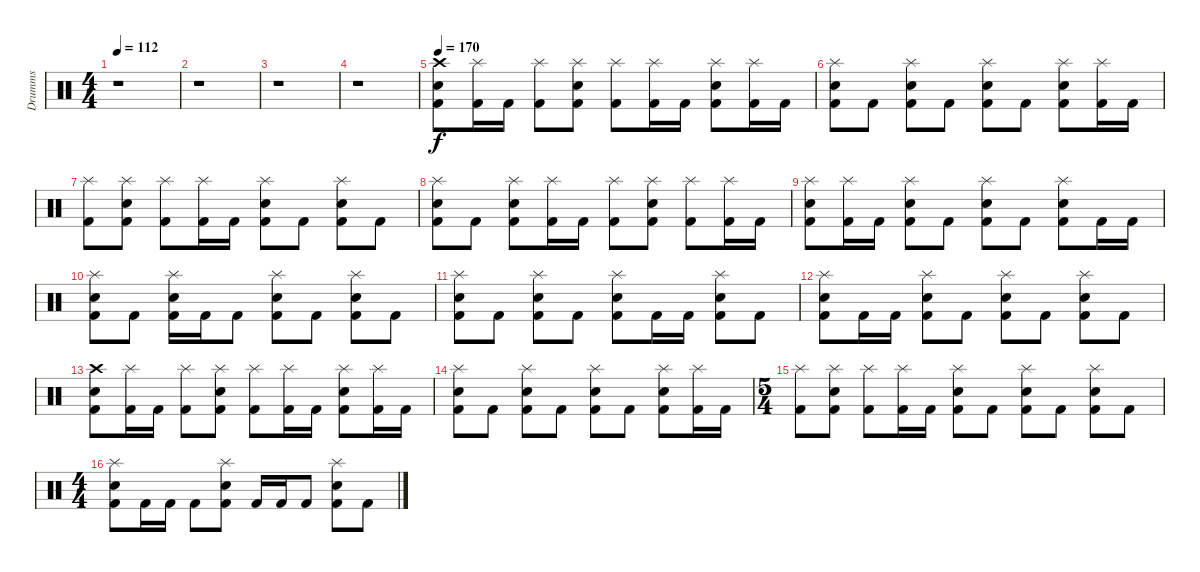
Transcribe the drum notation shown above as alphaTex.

\track ("Drumms" "Drumms") {instrument percussion}
\staff {score}
\articulation defaults
\ts (4 4)
\tempo 112
\clef neutral
\ks c
r.1{dy f} |
r.1 |
r.1 |
r.1 |
\tempo 170
("Kick (hit) 2" "Snare (hit) 2" "Crash high (hit)").8 ("Kick (hit) 2" "Splash (hit)").16 "Kick (hit) 2".16 ("Kick (hit) 2" "Splash (hit)").8 ("Kick (hit) 2" "Snare (hit) 2" "Splash (hit)").8 ("Kick (hit) 2" "Splash (hit)").8 ("Kick (hit) 2" "Splash (hit)").16 "Kick (hit) 2".16 ("Kick (hit) 2" "Snare (hit) 2" "Splash (hit)").8 ("Kick (hit) 2" "Splash (hit)").16 "Kick (hit) 2".16 |
("Kick (hit) 2" "Snare (hit) 2" "Splash (hit)").8 "Kick (hit) 2".8 ("Kick (hit) 2" "Snare (hit) 2" "Splash (hit)").8 "Kick (hit) 2".8 ("Kick (hit) 2" "Snare (hit) 2" "Splash (hit)").8 "Kick (hit) 2".8 ("Kick (hit) 2" "Snare (hit) 2" "Splash (hit)").8 ("Kick (hit) 2" "Splash (hit)").16 "Kick (hit) 2".16 |
("Kick (hit) 2" "Splash (hit)").8 ("Kick (hit) 2" "Snare (hit) 2" "Splash (hit)").8 ("Kick (hit) 2" "Splash (hit)").8 ("Kick (hit) 2" "Splash (hit)").16 "Kick (hit) 2".16 ("Kick (hit) 2" "Snare (hit) 2" "Splash (hit)").8 "Kick (hit) 2".8 ("Kick (hit) 2" "Snare (hit) 2" "Splash (hit)").8 "Kick (hit) 2".8 |
("Kick (hit) 2" "Snare (hit) 2" "Splash (hit)").8 "Kick (hit) 2".8 ("Kick (hit) 2" "Snare (hit) 2" "Splash (hit)").8 ("Kick (hit) 2" "Splash (hit)").16 "Kick (hit) 2".16 ("Kick (hit) 2" "Splash (hit)").8 ("Kick (hit) 2" "Snare (hit) 2" "Splash (hit)").8 ("Kick (hit) 2" "Splash (hit)").8 ("Kick (hit) 2" "Splash (hit)").16 "Kick (hit) 2".16 |
("Kick (hit) 2" "Snare (hit) 2" "Splash (hit)").8 ("Kick (hit) 2" "Splash (hit)").16 "Kick (hit) 2".16 ("Kick (hit) 2" "Snare (hit) 2" "Splash (hit)").8 "Kick (hit) 2".8 ("Kick (hit) 2" "Snare (hit) 2" "Splash (hit)").8 "Kick (hit) 2".8 ("Kick (hit) 2" "Snare (hit) 2" "Splash (hit)").8 "Kick (hit) 2".16 "Kick (hit) 2".16 |
("Kick (hit) 2" "Snare (hit) 2" "Splash (hit)").8 "Kick (hit) 2".8 ("Kick (hit) 2" "Snare (hit) 2" "Splash (hit)").16 "Kick (hit) 2".16 "Kick (hit) 2".8 ("Kick (hit) 2" "Snare (hit) 2" "Splash (hit)").8 "Kick (hit) 2".8 ("Kick (hit) 2" "Snare (hit) 2" "Splash (hit)").8 "Kick (hit) 2".8 |
("Kick (hit) 2" "Snare (hit) 2" "Splash (hit)").8 "Kick (hit) 2".8 ("Kick (hit) 2" "Snare (hit) 2" "Splash (hit)").8 "Kick (hit) 2".8 ("Kick (hit) 2" "Snare (hit) 2" "Splash (hit)").8 "Kick (hit) 2".16 "Kick (hit) 2".16 ("Kick (hit) 2" "Snare (hit) 2" "Splash (hit)").8 "Kick (hit) 2".8 |
("Kick (hit) 2" "Snare (hit) 2" "Splash (hit)").8 "Kick (hit) 2".16 "Kick (hit) 2".16 ("Kick (hit) 2" "Snare (hit) 2" "Splash (hit)").8 "Kick (hit) 2".8 ("Kick (hit) 2" "Snare (hit) 2" "Splash (hit)").8 "Kick (hit) 2".8 ("Kick (hit) 2" "Snare (hit) 2" "Splash (hit)").8 "Kick (hit) 2".8 |
("Kick (hit) 2" "Snare (hit) 2" "Crash high (hit)").8 ("Kick (hit) 2" "Splash (hit)").16 "Kick (hit) 2".16 ("Kick (hit) 2" "Splash (hit)").8 ("Kick (hit) 2" "Snare (hit) 2" "Splash (hit)").8 ("Kick (hit) 2" "Splash (hit)").8 ("Kick (hit) 2" "Splash (hit)").16 "Kick (hit) 2".16 ("Kick (hit) 2" "Snare (hit) 2" "Splash (hit)").8 ("Kick (hit) 2" "Splash (hit)").16 "Kick (hit) 2".16 |
("Kick (hit) 2" "Snare (hit) 2" "Splash (hit)").8 "Kick (hit) 2".8 ("Kick (hit) 2" "Snare (hit) 2" "Splash (hit)").8 "Kick (hit) 2".8 ("Kick (hit) 2" "Snare (hit) 2" "Splash (hit)").8 "Kick (hit) 2".8 ("Kick (hit) 2" "Snare (hit) 2" "Splash (hit)").8 ("Kick (hit) 2" "Splash (hit)").16 "Kick (hit) 2".16 |
\ts (5 4)
("Kick (hit) 2" "Splash (hit)").8 ("Kick (hit) 2" "Snare (hit) 2" "Splash (hit)").8 ("Kick (hit) 2" "Splash (hit)").8 ("Kick (hit) 2" "Splash (hit)").16 "Kick (hit) 2".16 ("Kick (hit) 2" "Snare (hit) 2" "Splash (hit)").8 "Kick (hit) 2".8 ("Kick (hit) 2" "Snare (hit) 2" "Splash (hit)").8 "Kick (hit) 2".8 ("Kick (hit) 2" "Snare (hit) 2" "Splash (hit)").8 "Kick (hit) 2".8 |
\ts (4 4)
("Kick (hit) 2" "Snare (hit) 2" "Splash (hit)").8 "Kick (hit) 2".16 "Kick (hit) 2".16 "Kick (hit) 2".8 ("Kick (hit) 2" "Snare (hit) 2" "Splash (hit)").8 "Kick (hit) 2".16 "Kick (hit) 2".16 "Kick (hit) 2".8 ("Kick (hit) 2" "Snare (hit) 2" "Splash (hit)").8 "Kick (hit) 2".8
